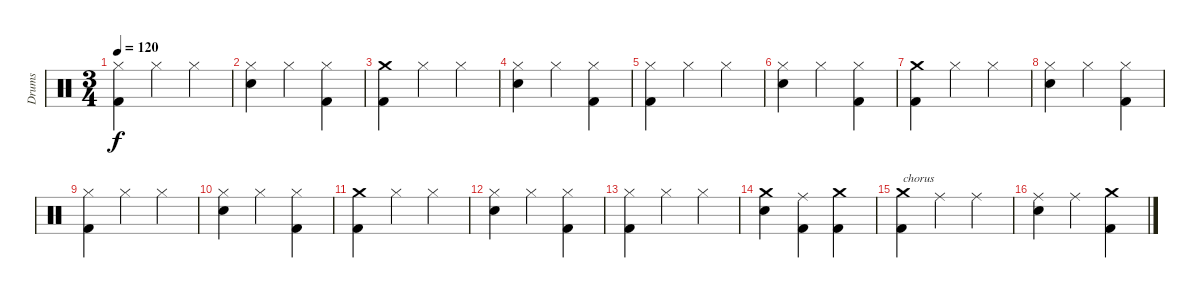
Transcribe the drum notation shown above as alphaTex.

\track ("Drums" "Drums") {instrument percussion}
\staff {score}
\articulation defaults
\ts (3 4)
\tempo 120
\clef neutral
\ks c
("Hi-Hat (closed)" "Kick (hit) 2").4{dy f} "Hi-Hat (closed)".4 "Hi-Hat (closed)".4 |
("Hi-Hat (closed)" "Electric Snare (hit)").4 "Hi-Hat (closed)".4 ("Hi-Hat (closed)" "Kick (hit) 2").4 |
("Crash medium (hit)" "Kick (hit) 2").4 "Hi-Hat (closed)".4 "Hi-Hat (closed)".4 |
("Hi-Hat (closed)" "Electric Snare (hit)").4 "Hi-Hat (closed)".4 ("Hi-Hat (closed)" "Kick (hit) 2").4 |
("Hi-Hat (closed)" "Kick (hit) 2").4 "Hi-Hat (closed)".4 "Hi-Hat (closed)".4 |
("Hi-Hat (closed)" "Electric Snare (hit)").4 "Hi-Hat (closed)".4 ("Hi-Hat (closed)" "Kick (hit) 2").4 |
("Crash medium (hit)" "Kick (hit) 2").4 "Hi-Hat (closed)".4 "Hi-Hat (closed)".4 |
("Hi-Hat (closed)" "Electric Snare (hit)").4 "Hi-Hat (closed)".4 ("Hi-Hat (closed)" "Kick (hit) 2").4 |
("Hi-Hat (closed)" "Kick (hit) 2").4 "Hi-Hat (closed)".4 "Hi-Hat (closed)".4 |
("Hi-Hat (closed)" "Electric Snare (hit)").4 "Hi-Hat (closed)".4 ("Hi-Hat (closed)" "Kick (hit) 2").4 |
("Crash medium (hit)" "Kick (hit) 2").4 "Hi-Hat (closed)".4 "Hi-Hat (closed)".4 |
("Hi-Hat (closed)" "Electric Snare (hit)").4 "Hi-Hat (closed)".4 ("Hi-Hat (closed)" "Kick (hit) 2").4 |
("Hi-Hat (closed)" "Kick (hit) 2").4 "Hi-Hat (closed)".4 "Hi-Hat (closed)".4 |
("Crash medium (hit)" "Electric Snare (hit)").4 ("Ride (middle)" "Kick (hit) 2").4 ("Crash medium (hit)" "Kick (hit) 2").4 |
("Crash medium (hit)" "Kick (hit) 2").4{txt "chorus"} "Ride (middle)".4 "Ride (middle)".4 |
("Ride (middle)" "Electric Snare (hit)").4 "Ride (middle)".4 ("Crash medium (hit)" "Kick (hit) 2").4
